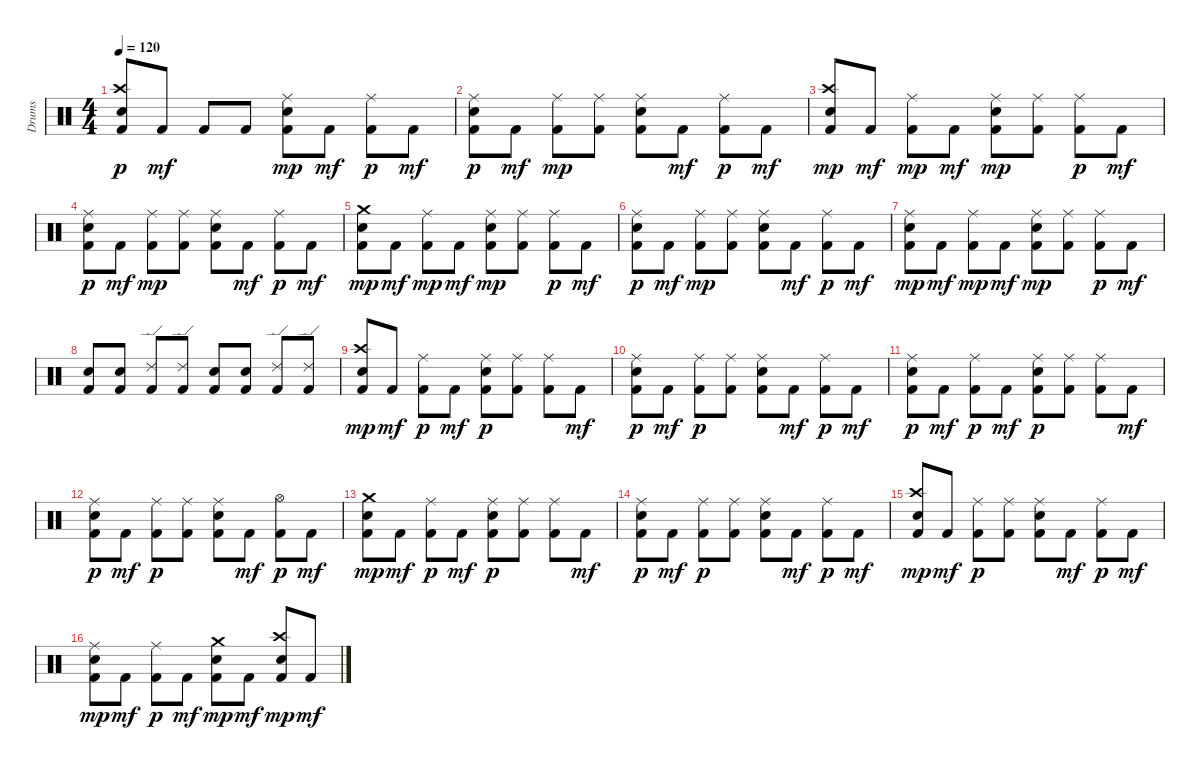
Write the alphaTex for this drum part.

\track ("Drums" "Drums") {instrument percussion}
\staff {score}
\articulation defaults
\ts (4 4)
\tempo 120
\clef neutral
\ks c
("Kick (hit) 2" "Crash high (hit)" "Snare (hit) 2").8{dy p} "Kick (hit) 2".8{dy mf} "Kick (hit) 2".8 "Kick (hit) 2".8 ("Kick (hit) 2" "Ride (middle)" "Snare (hit) 2").8{dy mp} "Kick (hit) 2".8{dy mf} ("Kick (hit) 2" "Ride (middle)").8{dy p} "Kick (hit) 2".8{dy mf} |
("Kick (hit) 2" "Ride (middle)" "Snare (hit) 2").8{dy p} "Kick (hit) 2".8{dy mf} ("Kick (hit) 2" "Ride (middle)").8{dy mp} ("Kick (hit) 2" "Ride (middle)").8 ("Kick (hit) 2" "Ride (middle)" "Snare (hit) 2").8 "Kick (hit) 2".8{dy mf} ("Kick (hit) 2" "Ride (middle)").8{dy p} "Kick (hit) 2".8{dy mf} |
("Kick (hit) 2" "Crash high (hit)" "Snare (hit) 2").8{dy mp} "Kick (hit) 2".8{dy mf} ("Kick (hit) 2" "Ride (middle)").8{dy mp} "Kick (hit) 2".8{dy mf} ("Kick (hit) 2" "Ride (middle)" "Snare (hit) 2").8{dy mp} ("Kick (hit) 2" "Ride (middle)").8 ("Kick (hit) 2" "Ride (middle)").8{dy p} "Kick (hit) 2".8{dy mf} |
("Kick (hit) 2" "Ride (middle)" "Snare (hit) 2").8{dy p} "Kick (hit) 2".8{dy mf} ("Kick (hit) 2" "Ride (middle)").8{dy mp} ("Kick (hit) 2" "Ride (middle)").8 ("Kick (hit) 2" "Ride (middle)" "Snare (hit) 2").8 "Kick (hit) 2".8{dy mf} ("Kick (hit) 2" "Ride (middle)").8{dy p} "Kick (hit) 2".8{dy mf} |
("Kick (hit) 2" "Crash medium (hit)" "Snare (hit) 2").8{dy mp} "Kick (hit) 2".8{dy mf} ("Kick (hit) 2" "Ride (middle)").8{dy mp} "Kick (hit) 2".8{dy mf} ("Kick (hit) 2" "Ride (middle)" "Snare (hit) 2").8{dy mp} ("Kick (hit) 2" "Ride (middle)").8 ("Kick (hit) 2" "Ride (middle)").8{dy p} "Kick (hit) 2".8{dy mf} |
("Kick (hit) 2" "Ride (middle)" "Snare (hit) 2").8{dy p} "Kick (hit) 2".8{dy mf} ("Kick (hit) 2" "Ride (middle)").8{dy mp} ("Kick (hit) 2" "Ride (middle)").8 ("Kick (hit) 2" "Ride (middle)" "Snare (hit) 2").8 "Kick (hit) 2".8{dy mf} ("Kick (hit) 2" "Ride (middle)").8{dy p} "Kick (hit) 2".8{dy mf} |
("Kick (hit) 2" "Ride (middle)" "Snare (hit) 2").8{dy mp} "Kick (hit) 2".8{dy mf} ("Kick (hit) 2" "Ride (middle)").8{dy mp} "Kick (hit) 2".8{dy mf} ("Kick (hit) 2" "Ride (middle)" "Snare (hit) 2").8{dy mp} ("Kick (hit) 2" "Ride (middle)").8 ("Kick (hit) 2" "Ride (middle)").8{dy p} "Kick (hit) 2".8{dy mf} |
("Kick (hit) 2" "Snare (hit) 2").8 ("Kick (hit) 2" "Snare (hit) 2").8 ("Kick (hit) 2" "Ride (edge) 2").8 ("Kick (hit) 2" "Ride (edge) 2").8 ("Kick (hit) 2" "Snare (hit) 2").8 ("Kick (hit) 2" "Snare (hit) 2").8 ("Kick (hit) 2" "Ride (edge) 2").8 ("Kick (hit) 2" "Ride (edge) 2").8 |
("Kick (hit) 2" "Crash high (hit)" "Snare (hit) 2").8{dy mp} "Kick (hit) 2".8{dy mf} ("Kick (hit) 2" "Ride (middle)").8{dy p} "Kick (hit) 2".8{dy mf} ("Kick (hit) 2" "Ride (middle)" "Snare (hit) 2").8{dy p} ("Kick (hit) 2" "Ride (middle)").8 ("Kick (hit) 2" "Ride (middle)").8 "Kick (hit) 2".8{dy mf} |
("Kick (hit) 2" "Ride (middle)" "Snare (hit) 2").8{dy p} "Kick (hit) 2".8{dy mf} ("Kick (hit) 2" "Ride (middle)").8{dy p} ("Kick (hit) 2" "Ride (middle)").8 ("Kick (hit) 2" "Ride (middle)" "Snare (hit) 2").8 "Kick (hit) 2".8{dy mf} ("Kick (hit) 2" "Ride (middle)").8{dy p} "Kick (hit) 2".8{dy mf} |
("Kick (hit) 2" "Ride (middle)" "Snare (hit) 2").8{dy p} "Kick (hit) 2".8{dy mf} ("Kick (hit) 2" "Ride (middle)").8{dy p} "Kick (hit) 2".8{dy mf} ("Kick (hit) 2" "Ride (middle)" "Snare (hit) 2").8{dy p} ("Kick (hit) 2" "Ride (middle)").8 ("Kick (hit) 2" "Ride (middle)").8 "Kick (hit) 2".8{dy mf} |
("Kick (hit) 2" "Ride (middle)" "Snare (hit) 2").8{dy p} "Kick (hit) 2".8{dy mf} ("Kick (hit) 2" "Ride (middle)").8{dy p} ("Kick (hit) 2" "Ride (middle)").8 ("Kick (hit) 2" "Ride (middle)" "Snare (hit) 2").8 "Kick (hit) 2".8{dy mf} ("Kick (hit) 2" "Hi-Hat (open)").8{dy p} "Kick (hit) 2".8{dy mf} |
("Kick (hit) 2" "Crash medium (hit)" "Snare (hit) 2").8{dy mp} "Kick (hit) 2".8{dy mf} ("Kick (hit) 2" "Ride (middle)").8{dy p} "Kick (hit) 2".8{dy mf} ("Kick (hit) 2" "Ride (middle)" "Snare (hit) 2").8{dy p} ("Kick (hit) 2" "Ride (middle)").8 ("Kick (hit) 2" "Ride (middle)").8 "Kick (hit) 2".8{dy mf} |
("Kick (hit) 2" "Ride (middle)" "Snare (hit) 2").8{dy p} "Kick (hit) 2".8{dy mf} ("Kick (hit) 2" "Ride (middle)").8{dy p} ("Kick (hit) 2" "Ride (middle)").8 ("Kick (hit) 2" "Ride (middle)" "Snare (hit) 2").8 "Kick (hit) 2".8{dy mf} ("Kick (hit) 2" "Ride (middle)").8{dy p} "Kick (hit) 2".8{dy mf} |
("Kick (hit) 2" "Crash high (hit)" "Snare (hit) 2").8{dy mp} "Kick (hit) 2".8{dy mf} ("Kick (hit) 2" "Ride (middle)").8{dy p} ("Kick (hit) 2" "Ride (middle)").8 ("Kick (hit) 2" "Ride (middle)" "Snare (hit) 2").8 "Kick (hit) 2".8{dy mf} ("Kick (hit) 2" "Ride (middle)").8{dy p} "Kick (hit) 2".8{dy mf} |
("Kick (hit) 2" "Ride (middle)" "Snare (hit) 2").8{dy mp} "Kick (hit) 2".8{dy mf} ("Kick (hit) 2" "Ride (middle)").8{dy p} "Kick (hit) 2".8{dy mf} ("Kick (hit) 2" "Crash medium (hit)" "Snare (hit) 2").8{dy mp} "Kick (hit) 2".8{dy mf} ("Kick (hit) 2" "Crash high (hit)" "Snare (hit) 2").8{dy mp} "Kick (hit) 2".8{dy mf}
